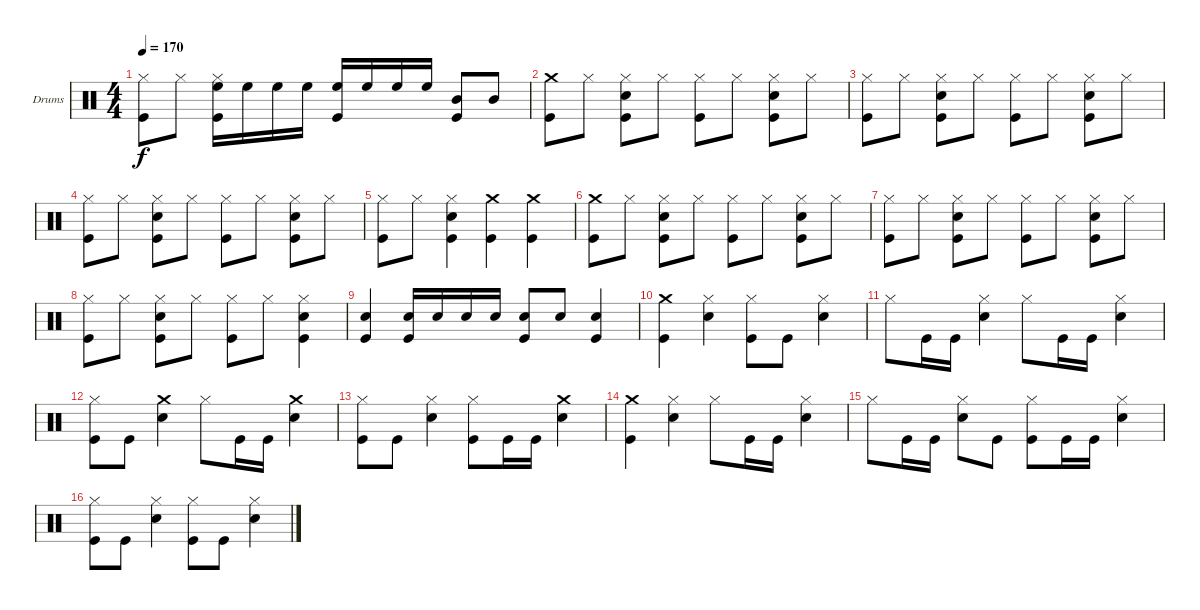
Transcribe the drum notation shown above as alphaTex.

\bracketExtendMode groupsimilarinstruments
\firstSystemTrackNameOrientation horizontal
\otherSystemsTrackNameOrientation horizontal
\track ("Drumkit" "Drums") {instrument percussion}
\staff {score}
\articulation defaults
\ts (4 4)
\tempo 170
\clef neutral
\ks c
("Hi-Hat (closed)" "Kick (hit)").8{dy f} "Hi-Hat (closed)".8 ("Hi-Hat (closed)" "High Floor Tom (hit)" "Kick (hit)").16 "High Floor Tom (hit)".16 "High Floor Tom (hit)".16 "High Floor Tom (hit)".16 ("High Floor Tom (hit)" "Kick (hit)").16 "High Floor Tom (hit)".16 "High Floor Tom (hit)".16 "High Floor Tom (hit)".16 ("Mid Tom (hit)" "Kick (hit)").8 "Mid Tom (hit)".8 |
("Crash medium (hit)" "Kick (hit)").8 "Hi-Hat (closed)".8 ("Hi-Hat (closed)" "Snare (hit) 2" "Kick (hit)").8 "Hi-Hat (closed)".8 ("Hi-Hat (closed)" "Kick (hit)").8 "Hi-Hat (closed)".8 ("Hi-Hat (closed)" "Snare (hit) 2" "Kick (hit)").8 "Hi-Hat (closed)".8 |
("Hi-Hat (closed)" "Kick (hit)").8 "Hi-Hat (closed)".8 ("Hi-Hat (closed)" "Snare (hit) 2" "Kick (hit)").8 "Hi-Hat (closed)".8 ("Hi-Hat (closed)" "Kick (hit)").8 "Hi-Hat (closed)".8 ("Hi-Hat (closed)" "Snare (hit) 2" "Kick (hit)").8 "Hi-Hat (closed)".8 |
("Hi-Hat (closed)" "Kick (hit)").8 "Hi-Hat (closed)".8 ("Hi-Hat (closed)" "Snare (hit) 2" "Kick (hit)").8 "Hi-Hat (closed)".8 ("Hi-Hat (closed)" "Kick (hit)").8 "Hi-Hat (closed)".8 ("Hi-Hat (closed)" "Snare (hit) 2" "Kick (hit)").8 "Hi-Hat (closed)".8 |
("Hi-Hat (closed)" "Kick (hit)").8 "Hi-Hat (closed)".8 ("Hi-Hat (closed)" "Snare (hit) 2" "Kick (hit)").4 ("Crash medium (hit)" "Kick (hit)").4 ("Crash medium (hit)" "Kick (hit)").4 |
("Crash medium (hit)" "Kick (hit)").8 "Hi-Hat (closed)".8 ("Hi-Hat (closed)" "Snare (hit) 2" "Kick (hit)").8 "Hi-Hat (closed)".8 ("Hi-Hat (closed)" "Kick (hit)").8 "Hi-Hat (closed)".8 ("Hi-Hat (closed)" "Snare (hit) 2" "Kick (hit)").8 "Hi-Hat (closed)".8 |
("Hi-Hat (closed)" "Kick (hit)").8 "Hi-Hat (closed)".8 ("Hi-Hat (closed)" "Snare (hit) 2" "Kick (hit)").8 "Hi-Hat (closed)".8 ("Hi-Hat (closed)" "Kick (hit)").8 "Hi-Hat (closed)".8 ("Hi-Hat (closed)" "Snare (hit) 2" "Kick (hit)").8 "Hi-Hat (closed)".8 |
("Hi-Hat (closed)" "Kick (hit)").8 "Hi-Hat (closed)".8 ("Hi-Hat (closed)" "Snare (hit) 2" "Kick (hit)").8 "Hi-Hat (closed)".8 ("Hi-Hat (closed)" "Kick (hit)").8 "Hi-Hat (closed)".8 ("Hi-Hat (closed)" "Snare (hit) 2" "Kick (hit)").4 |
("Snare (hit) 2" "Kick (hit)").4 ("Snare (hit) 2" "Kick (hit)").16 "Snare (hit) 2".16 "Snare (hit) 2".16 "Snare (hit) 2".16 ("Snare (hit) 2" "Kick (hit)").8 "Snare (hit) 2".8 ("Snare (hit) 2" "Kick (hit)").4 |
("Crash medium (hit)" "Kick (hit)").4 ("Hi-Hat (closed)" "Snare (hit) 2").4 ("Hi-Hat (closed)" "Kick (hit)").8 "Kick (hit)".8 ("Hi-Hat (closed)" "Snare (hit) 2").4 |
"Hi-Hat (closed)".8 "Kick (hit)".16 "Kick (hit)".16 ("Hi-Hat (closed)" "Snare (hit) 2").4 "Hi-Hat (closed)".8 "Kick (hit)".16 "Kick (hit)".16 ("Hi-Hat (closed)" "Snare (hit) 2").4 |
("Hi-Hat (closed)" "Kick (hit)").8 "Kick (hit)".8 ("Crash medium (hit)" "Snare (hit) 2").4 "Hi-Hat (closed)".8 "Kick (hit)".16 "Kick (hit)".16 ("Crash medium (hit)" "Snare (hit) 2").4 |
("Hi-Hat (closed)" "Kick (hit)").8 "Kick (hit)".8 ("Hi-Hat (closed)" "Snare (hit) 2").4 ("Hi-Hat (closed)" "Kick (hit)").8 "Kick (hit)".16 "Kick (hit)".16 ("Crash medium (hit)" "Snare (hit) 2").4 |
("Crash medium (hit)" "Kick (hit)").4 ("Hi-Hat (closed)" "Snare (hit) 2").4 "Hi-Hat (closed)".8 "Kick (hit)".16 "Kick (hit)".16 ("Hi-Hat (closed)" "Snare (hit) 2").4 |
"Hi-Hat (closed)".8 "Kick (hit)".16 "Kick (hit)".16 ("Hi-Hat (closed)" "Snare (hit) 2").8 "Kick (hit)".8 ("Hi-Hat (closed)" "Kick (hit)").8 "Kick (hit)".16 "Kick (hit)".16 ("Hi-Hat (closed)" "Snare (hit) 2").4 |
("Hi-Hat (closed)" "Kick (hit)").8 "Kick (hit)".8 ("Hi-Hat (closed)" "Snare (hit) 2").4 ("Hi-Hat (closed)" "Kick (hit)").8 "Kick (hit)".8 ("Hi-Hat (closed)" "Snare (hit) 2").4
